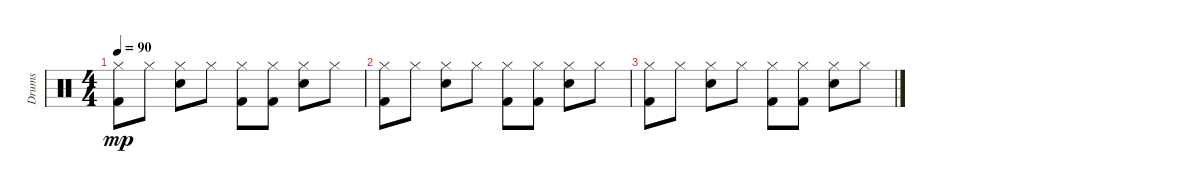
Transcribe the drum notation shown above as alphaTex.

\track ("Drums" "Drums") {instrument percussion}
\staff {score}
\articulation defaults
\ts (4 4)
\tempo 90
\clef neutral
\ks c
("Kick (hit) 2" "Hi-Hat (closed)").8{dy mp} "Hi-Hat (closed)".8 ("Electric Snare (hit)" "Hi-Hat (closed)").8 "Hi-Hat (closed)".8 ("Kick (hit) 2" "Hi-Hat (closed)").8 ("Kick (hit) 2" "Hi-Hat (closed)").8 ("Electric Snare (hit)" "Hi-Hat (closed)").8{volume 0} "Hi-Hat (closed)".8 |
("Kick (hit) 2" "Hi-Hat (closed)").8 "Hi-Hat (closed)".8 ("Electric Snare (hit)" "Hi-Hat (closed)").8 "Hi-Hat (closed)".8 ("Kick (hit) 2" "Hi-Hat (closed)").8 ("Kick (hit) 2" "Hi-Hat (closed)").8 ("Electric Snare (hit)" "Hi-Hat (closed)").8 "Hi-Hat (closed)".8 |
("Kick (hit) 2" "Hi-Hat (closed)").8 "Hi-Hat (closed)".8 ("Electric Snare (hit)" "Hi-Hat (closed)").8 "Hi-Hat (closed)".8 ("Kick (hit) 2" "Hi-Hat (closed)").8 ("Kick (hit) 2" "Hi-Hat (closed)").8 ("Electric Snare (hit)" "Hi-Hat (closed)").8 "Hi-Hat (closed)".8
